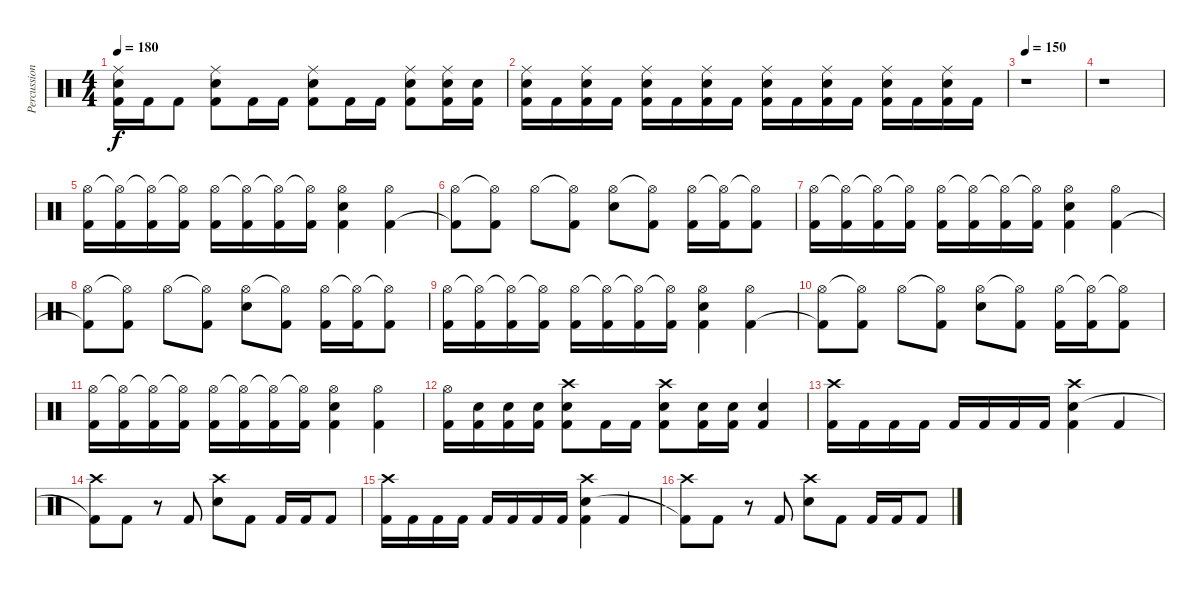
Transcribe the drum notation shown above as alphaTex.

\track ("Percussion" "Percussion") {instrument percussion}
\staff {score}
\articulation defaults
\ts (4 4)
\tempo 180
\clef neutral
\ks c
("Ride (middle)" "Electric Snare (hit)" "Kick (hit) 2").16{dy f} "Kick (hit) 2".16 "Kick (hit) 2".8 ("Ride (middle)" "Electric Snare (hit)" "Kick (hit) 2").8 "Kick (hit) 2".16 "Kick (hit) 2".16 ("Ride (middle)" "Electric Snare (hit)" "Kick (hit) 2").8 "Kick (hit) 2".16 "Kick (hit) 2".16 ("Ride (middle)" "Electric Snare (hit)" "Kick (hit) 2").8 ("Ride (middle)" "Electric Snare (hit)" "Kick (hit) 2").16 ("Electric Snare (hit)" "Kick (hit) 2").16 |
("Ride (middle)" "Electric Snare (hit)" "Kick (hit) 2").16 "Kick (hit) 2".16 ("Ride (middle)" "Electric Snare (hit)" "Kick (hit) 2").16 "Kick (hit) 2".16 ("Ride (middle)" "Electric Snare (hit)" "Kick (hit) 2").16 "Kick (hit) 2".16 ("Ride (middle)" "Electric Snare (hit)" "Kick (hit) 2").16 "Kick (hit) 2".16 ("Ride (middle)" "Electric Snare (hit)" "Kick (hit) 2").16 "Kick (hit) 2".16 ("Ride (middle)" "Electric Snare (hit)" "Kick (hit) 2").16 "Kick (hit) 2".16 ("Ride (middle)" "Electric Snare (hit)" "Kick (hit) 2").16 "Kick (hit) 2".16 ("Ride (middle)" "Electric Snare (hit)" "Kick (hit) 2").16 "Kick (hit) 2".16 |
\tempo 150
r.1 |
r.1 |
("Hi-Hat (open)" "Kick (hit) 2").16 ("Hi-Hat (open)"{t} "Kick (hit) 2").16 ("Hi-Hat (open)"{t} "Kick (hit) 2").16 ("Hi-Hat (open)"{t} "Kick (hit) 2").16 ("Hi-Hat (open)" "Kick (hit) 2").16 ("Hi-Hat (open)"{t} "Kick (hit) 2").16 ("Hi-Hat (open)"{t} "Kick (hit) 2").16 ("Hi-Hat (open)"{t} "Kick (hit) 2").16 ("Hi-Hat (open)" "Electric Snare (hit)" "Kick (hit) 2").4 ("Hi-Hat (open)" "Kick (hit) 2").4 |
("Hi-Hat (open)" "Kick (hit) 2"{t}).8 ("Hi-Hat (open)"{t} "Kick (hit) 2").8 "Hi-Hat (open)".8 ("Hi-Hat (open)"{t} "Kick (hit) 2").8 ("Hi-Hat (open)" "Electric Snare (hit)").8 ("Hi-Hat (open)"{t} "Kick (hit) 2").8 ("Hi-Hat (open)" "Kick (hit) 2").16 ("Hi-Hat (open)"{t} "Kick (hit) 2").16 ("Hi-Hat (open)"{t} "Kick (hit) 2").8 |
("Hi-Hat (open)" "Kick (hit) 2").16 ("Hi-Hat (open)"{t} "Kick (hit) 2").16 ("Hi-Hat (open)"{t} "Kick (hit) 2").16 ("Hi-Hat (open)"{t} "Kick (hit) 2").16 ("Hi-Hat (open)" "Kick (hit) 2").16 ("Hi-Hat (open)"{t} "Kick (hit) 2").16 ("Hi-Hat (open)"{t} "Kick (hit) 2").16 ("Hi-Hat (open)"{t} "Kick (hit) 2").16 ("Hi-Hat (open)" "Electric Snare (hit)" "Kick (hit) 2").4 ("Hi-Hat (open)" "Kick (hit) 2").4 |
("Hi-Hat (open)" "Kick (hit) 2"{t}).8 ("Hi-Hat (open)"{t} "Kick (hit) 2").8 "Hi-Hat (open)".8 ("Hi-Hat (open)"{t} "Kick (hit) 2").8 ("Hi-Hat (open)" "Electric Snare (hit)").8 ("Hi-Hat (open)"{t} "Kick (hit) 2").8 ("Hi-Hat (open)" "Kick (hit) 2").16 ("Hi-Hat (open)"{t} "Kick (hit) 2").16 ("Hi-Hat (open)"{t} "Kick (hit) 2").8 |
("Hi-Hat (open)" "Kick (hit) 2").16 ("Hi-Hat (open)"{t} "Kick (hit) 2").16 ("Hi-Hat (open)"{t} "Kick (hit) 2").16 ("Hi-Hat (open)"{t} "Kick (hit) 2").16 ("Hi-Hat (open)" "Kick (hit) 2").16 ("Hi-Hat (open)"{t} "Kick (hit) 2").16 ("Hi-Hat (open)"{t} "Kick (hit) 2").16 ("Hi-Hat (open)"{t} "Kick (hit) 2").16 ("Hi-Hat (open)" "Electric Snare (hit)" "Kick (hit) 2").4 ("Hi-Hat (open)" "Kick (hit) 2").4 |
("Hi-Hat (open)" "Kick (hit) 2"{t}).8 ("Hi-Hat (open)"{t} "Kick (hit) 2").8 "Hi-Hat (open)".8 ("Hi-Hat (open)"{t} "Kick (hit) 2").8 ("Hi-Hat (open)" "Electric Snare (hit)").8 ("Hi-Hat (open)"{t} "Kick (hit) 2").8 ("Hi-Hat (open)" "Kick (hit) 2").16 ("Hi-Hat (open)"{t} "Kick (hit) 2").16 ("Hi-Hat (open)"{t} "Kick (hit) 2").8 |
("Hi-Hat (open)" "Kick (hit) 2").16 ("Hi-Hat (open)"{t} "Kick (hit) 2").16 ("Hi-Hat (open)"{t} "Kick (hit) 2").16 ("Hi-Hat (open)"{t} "Kick (hit) 2").16 ("Hi-Hat (open)" "Kick (hit) 2").16 ("Hi-Hat (open)"{t} "Kick (hit) 2").16 ("Hi-Hat (open)"{t} "Kick (hit) 2").16 ("Hi-Hat (open)"{t} "Kick (hit) 2").16 ("Hi-Hat (open)" "Electric Snare (hit)" "Kick (hit) 2").4 ("Hi-Hat (open)" "Kick (hit) 2").4 |
("Hi-Hat (open)" "Kick (hit) 2").16 ("Electric Snare (hit)" "Kick (hit) 2").16 ("Electric Snare (hit)" "Kick (hit) 2").16 ("Electric Snare (hit)" "Kick (hit) 2").16 ("Crash high (hit)" "Electric Snare (hit)" "Kick (hit) 2").8 "Kick (hit) 2".16 "Kick (hit) 2".16 ("Crash high (hit)" "Electric Snare (hit)" "Kick (hit) 2").8 ("Electric Snare (hit)" "Kick (hit) 2").16 ("Electric Snare (hit)" "Kick (hit) 2").16 ("Electric Snare (hit)" "Kick (hit) 2").4 |
("Crash high (hit)" "Kick (hit) 2").16 "Kick (hit) 2".16 "Kick (hit) 2".16 "Kick (hit) 2".16 "Kick (hit) 2".16 "Kick (hit) 2".16 "Kick (hit) 2".16 "Kick (hit) 2".16 ("Crash high (hit)" "Electric Snare (hit)" "Kick (hit) 2").4 "Kick (hit) 2".4 |
("Crash high (hit)" "Kick (hit) 2"{t}).8 "Kick (hit) 2".8 r.8 "Kick (hit) 2".8 ("Crash high (hit)" "Electric Snare (hit)").8 "Kick (hit) 2".8 "Kick (hit) 2".16 "Kick (hit) 2".16 "Kick (hit) 2".8 |
("Crash high (hit)" "Kick (hit) 2").16 "Kick (hit) 2".16 "Kick (hit) 2".16 "Kick (hit) 2".16 "Kick (hit) 2".16 "Kick (hit) 2".16 "Kick (hit) 2".16 "Kick (hit) 2".16 ("Crash high (hit)" "Electric Snare (hit)" "Kick (hit) 2").4 "Kick (hit) 2".4 |
("Crash high (hit)" "Kick (hit) 2"{t}).8 "Kick (hit) 2".8 r.8 "Kick (hit) 2".8 ("Crash high (hit)" "Electric Snare (hit)").8 "Kick (hit) 2".8 "Kick (hit) 2".16 "Kick (hit) 2".16 "Kick (hit) 2".8
